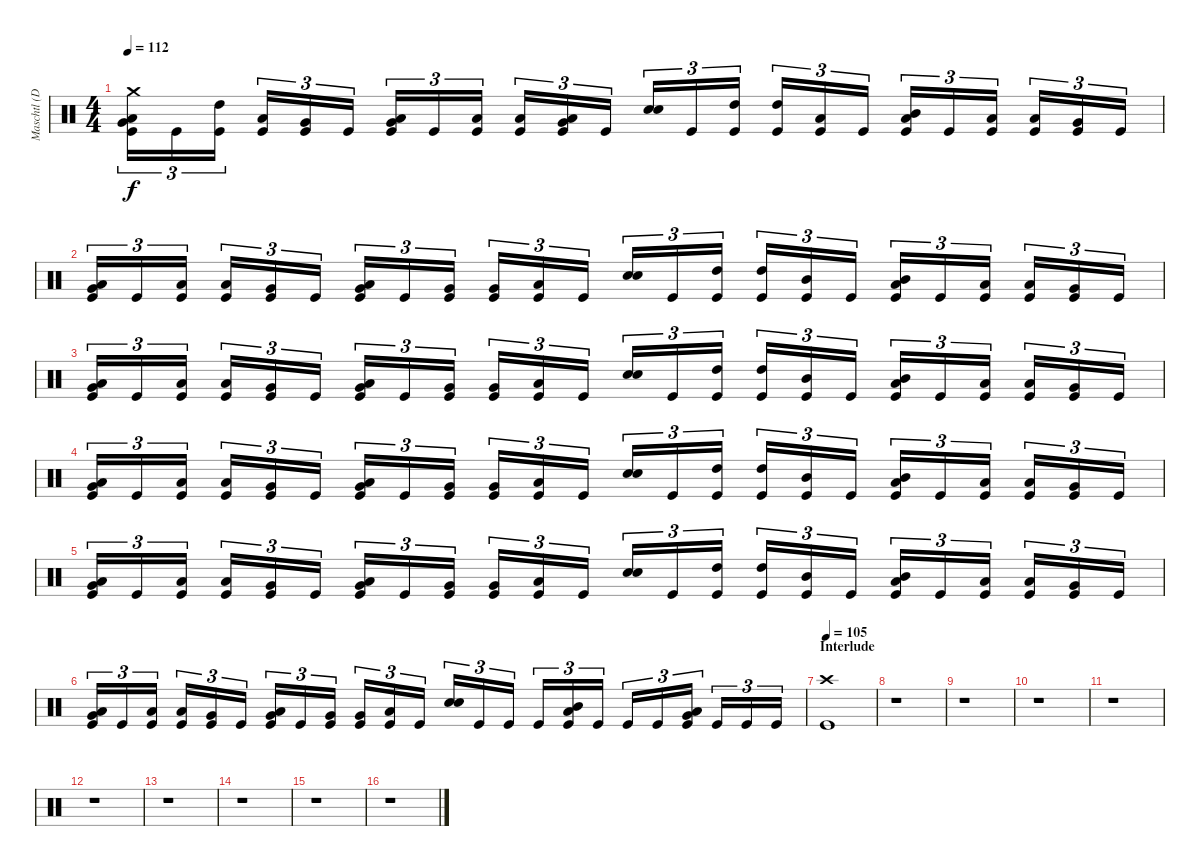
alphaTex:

\track ("Maschtl (Drums)" "Maschtl (D") {instrument percussion}
\staff {score}
\articulation defaults
\ts (4 4)
\tempo 112
\clef neutral
\ks c
("Crash medium (hit)" "Low Tom (hit)" "Very Low Tom (hit)" "Kick (hit)").16{tu (3 2) dy f} "Kick (hit)".16{tu (3 2)} ("High Tom (hit)" "Kick (hit)").16{tu (3 2)} ("Low Tom (hit)" "Kick (hit)").16{tu (3 2)} ("Very Low Tom (hit)" "Kick (hit)").16{tu (3 2)} "Kick (hit)".16{tu (3 2)} ("Low Tom (hit)" "Very Low Tom (hit)" "Kick (hit)").16{tu (3 2) bd 60} "Kick (hit)".16{tu (3 2)} ("Low Tom (hit)" "Kick (hit)").16{tu (3 2)} ("Low Tom (hit)" "Kick (hit)").16{tu (3 2)} ("Low Tom (hit)" "Very Low Tom (hit)" "Kick (hit)").16{tu (3 2) bd 60} "Kick (hit)".16{tu (3 2)} ("Electric Snare (hit)" "Electric Snare (hit)").16{tu (3 2) bd 60} "Kick (hit)".16{tu (3 2)} ("High Tom (hit)" "Kick (hit)").16{tu (3 2)} ("High Tom (hit)" "Kick (hit)").16{tu (3 2)} ("Low Tom (hit)" "Kick (hit)").16{tu (3 2)} "Kick (hit)".16{tu (3 2)} ("Mid Tom (hit)" "Low Tom (hit)" "Kick (hit)").16{tu (3 2) bd 60} "Kick (hit)".16{tu (3 2)} ("Low Tom (hit)" "Kick (hit)").16{tu (3 2)} ("Low Tom (hit)" "Kick (hit)").16{tu (3 2)} ("Very Low Tom (hit)" "Kick (hit)").16{tu (3 2)} "Kick (hit)".16{tu (3 2)} |
("Low Tom (hit)" "Very Low Tom (hit)" "Kick (hit)").16{tu (3 2) bd 60} "Kick (hit)".16{tu (3 2)} ("Low Tom (hit)" "Kick (hit)").16{tu (3 2)} ("Low Tom (hit)" "Kick (hit)").16{tu (3 2)} ("Very Low Tom (hit)" "Kick (hit)").16{tu (3 2)} "Kick (hit)".16{tu (3 2)} ("Low Tom (hit)" "Very Low Tom (hit)" "Kick (hit)").16{tu (3 2) bd 60} "Kick (hit)".16{tu (3 2)} ("Very Low Tom (hit)" "Kick (hit)").16{tu (3 2)} ("Very Low Tom (hit)" "Kick (hit)").16{tu (3 2)} ("Low Floor Tom (hit)" "Kick (hit)").16{tu (3 2)} "Kick (hit)".16{tu (3 2)} ("Electric Snare (hit)" "Electric Snare (hit)").16{tu (3 2) bd 60} "Kick (hit)".16{tu (3 2)} ("High Tom (hit)" "Kick (hit)").16{tu (3 2)} ("High Tom (hit)" "Kick (hit)").16{tu (3 2)} ("Mid Tom (hit)" "Kick (hit)").16{tu (3 2)} "Kick (hit)".16{tu (3 2)} ("Mid Tom (hit)" "Low Tom (hit)" "Kick (hit)").16{tu (3 2) bd 60} "Kick (hit)".16{tu (3 2)} ("Low Tom (hit)" "Kick (hit)").16{tu (3 2)} ("Low Tom (hit)" "Kick (hit)").16{tu (3 2)} ("Very Low Tom (hit)" "Kick (hit)").16{tu (3 2)} "Kick (hit)".16{tu (3 2)} |
("Low Tom (hit)" "Very Low Tom (hit)" "Kick (hit)").16{tu (3 2) bd 60} "Kick (hit)".16{tu (3 2)} ("Low Tom (hit)" "Kick (hit)").16{tu (3 2)} ("Low Tom (hit)" "Kick (hit)").16{tu (3 2)} ("Very Low Tom (hit)" "Kick (hit)").16{tu (3 2)} "Kick (hit)".16{tu (3 2)} ("Low Tom (hit)" "Very Low Tom (hit)" "Kick (hit)").16{tu (3 2) bd 60} "Kick (hit)".16{tu (3 2)} ("Very Low Tom (hit)" "Kick (hit)").16{tu (3 2)} ("Very Low Tom (hit)" "Kick (hit)").16{tu (3 2)} ("Low Floor Tom (hit)" "Kick (hit)").16{tu (3 2)} "Kick (hit)".16{tu (3 2)} ("Electric Snare (hit)" "Electric Snare (hit)").16{tu (3 2) bd 60} "Kick (hit)".16{tu (3 2)} ("High Tom (hit)" "Kick (hit)").16{tu (3 2)} ("High Tom (hit)" "Kick (hit)").16{tu (3 2)} ("Mid Tom (hit)" "Kick (hit)").16{tu (3 2)} "Kick (hit)".16{tu (3 2)} ("Mid Tom (hit)" "Low Tom (hit)" "Kick (hit)").16{tu (3 2) bd 60} "Kick (hit)".16{tu (3 2)} ("Low Tom (hit)" "Kick (hit)").16{tu (3 2)} ("Low Tom (hit)" "Kick (hit)").16{tu (3 2)} ("Very Low Tom (hit)" "Kick (hit)").16{tu (3 2)} "Kick (hit)".16{tu (3 2)} |
("Low Tom (hit)" "Very Low Tom (hit)" "Kick (hit)").16{tu (3 2) bd 60} "Kick (hit)".16{tu (3 2)} ("Low Tom (hit)" "Kick (hit)").16{tu (3 2)} ("Low Tom (hit)" "Kick (hit)").16{tu (3 2)} ("Very Low Tom (hit)" "Kick (hit)").16{tu (3 2)} "Kick (hit)".16{tu (3 2)} ("Low Tom (hit)" "Very Low Tom (hit)" "Kick (hit)").16{tu (3 2) bd 60} "Kick (hit)".16{tu (3 2)} ("Very Low Tom (hit)" "Kick (hit)").16{tu (3 2)} ("Very Low Tom (hit)" "Kick (hit)").16{tu (3 2)} ("Low Floor Tom (hit)" "Kick (hit)").16{tu (3 2)} "Kick (hit)".16{tu (3 2)} ("Electric Snare (hit)" "Electric Snare (hit)").16{tu (3 2) bd 60} "Kick (hit)".16{tu (3 2)} ("High Tom (hit)" "Kick (hit)").16{tu (3 2)} ("High Tom (hit)" "Kick (hit)").16{tu (3 2)} ("Mid Tom (hit)" "Kick (hit)").16{tu (3 2)} "Kick (hit)".16{tu (3 2)} ("Mid Tom (hit)" "Low Tom (hit)" "Kick (hit)").16{tu (3 2) bd 60} "Kick (hit)".16{tu (3 2)} ("Low Tom (hit)" "Kick (hit)").16{tu (3 2)} ("Low Tom (hit)" "Kick (hit)").16{tu (3 2)} ("Very Low Tom (hit)" "Kick (hit)").16{tu (3 2)} "Kick (hit)".16{tu (3 2)} |
("Low Tom (hit)" "Very Low Tom (hit)" "Kick (hit)").16{tu (3 2) bd 60} "Kick (hit)".16{tu (3 2)} ("Low Tom (hit)" "Kick (hit)").16{tu (3 2)} ("Low Tom (hit)" "Kick (hit)").16{tu (3 2)} ("Very Low Tom (hit)" "Kick (hit)").16{tu (3 2)} "Kick (hit)".16{tu (3 2)} ("Low Tom (hit)" "Very Low Tom (hit)" "Kick (hit)").16{tu (3 2) bd 60} "Kick (hit)".16{tu (3 2)} ("Very Low Tom (hit)" "Kick (hit)").16{tu (3 2)} ("Very Low Tom (hit)" "Kick (hit)").16{tu (3 2)} ("Low Floor Tom (hit)" "Kick (hit)").16{tu (3 2)} "Kick (hit)".16{tu (3 2)} ("Electric Snare (hit)" "Electric Snare (hit)").16{tu (3 2) bd 60} "Kick (hit)".16{tu (3 2)} ("High Tom (hit)" "Kick (hit)").16{tu (3 2)} ("High Tom (hit)" "Kick (hit)").16{tu (3 2)} ("Mid Tom (hit)" "Kick (hit)").16{tu (3 2)} "Kick (hit)".16{tu (3 2)} ("Mid Tom (hit)" "Low Tom (hit)" "Kick (hit)").16{tu (3 2) bd 60} "Kick (hit)".16{tu (3 2)} ("Low Tom (hit)" "Kick (hit)").16{tu (3 2)} ("Low Tom (hit)" "Kick (hit)").16{tu (3 2)} ("Very Low Tom (hit)" "Kick (hit)").16{tu (3 2)} "Kick (hit)".16{tu (3 2)} |
("Low Tom (hit)" "Very Low Tom (hit)" "Kick (hit)").16{tu (3 2) bd 60} "Kick (hit)".16{tu (3 2)} ("Low Tom (hit)" "Kick (hit)").16{tu (3 2)} ("Low Tom (hit)" "Kick (hit)").16{tu (3 2)} ("Very Low Tom (hit)" "Kick (hit)").16{tu (3 2)} "Kick (hit)".16{tu (3 2)} ("Low Tom (hit)" "Very Low Tom (hit)" "Kick (hit)").16{tu (3 2) bd 60} "Kick (hit)".16{tu (3 2)} ("Very Low Tom (hit)" "Kick (hit)").16{tu (3 2)} ("Very Low Tom (hit)" "Kick (hit)").16{tu (3 2)} ("Low Floor Tom (hit)" "Kick (hit)").16{tu (3 2)} "Kick (hit)".16{tu (3 2)} ("Electric Snare (hit)" "Electric Snare (hit)").16{tu (3 2) bd 60} "Kick (hit)".16{tu (3 2)} "Kick (hit)".16{tu (3 2)} "Kick (hit)".16{tu (3 2)} ("Mid Tom (hit)" "Low Tom (hit)" "Kick (hit)").16{tu (3 2) bd 60} "Kick (hit)".16{tu (3 2)} "Kick (hit)".16{tu (3 2)} "Kick (hit)".16{tu (3 2)} ("Low Tom (hit)" "Very Low Tom (hit)" "Kick (hit)").16{tu (3 2) bd 60} "Kick (hit)".16{tu (3 2)} "Kick (hit)".16{tu (3 2)} "Kick (hit)".16{tu (3 2)} |
\section ("" "Interlude")
\tempo 105
("Crash high (hit)" "Kick (hit)").1 |
r.1 |
r.1 |
r.1 |
r.1 |
r.1 |
r.1 |
r.1 |
r.1 |
r.1
